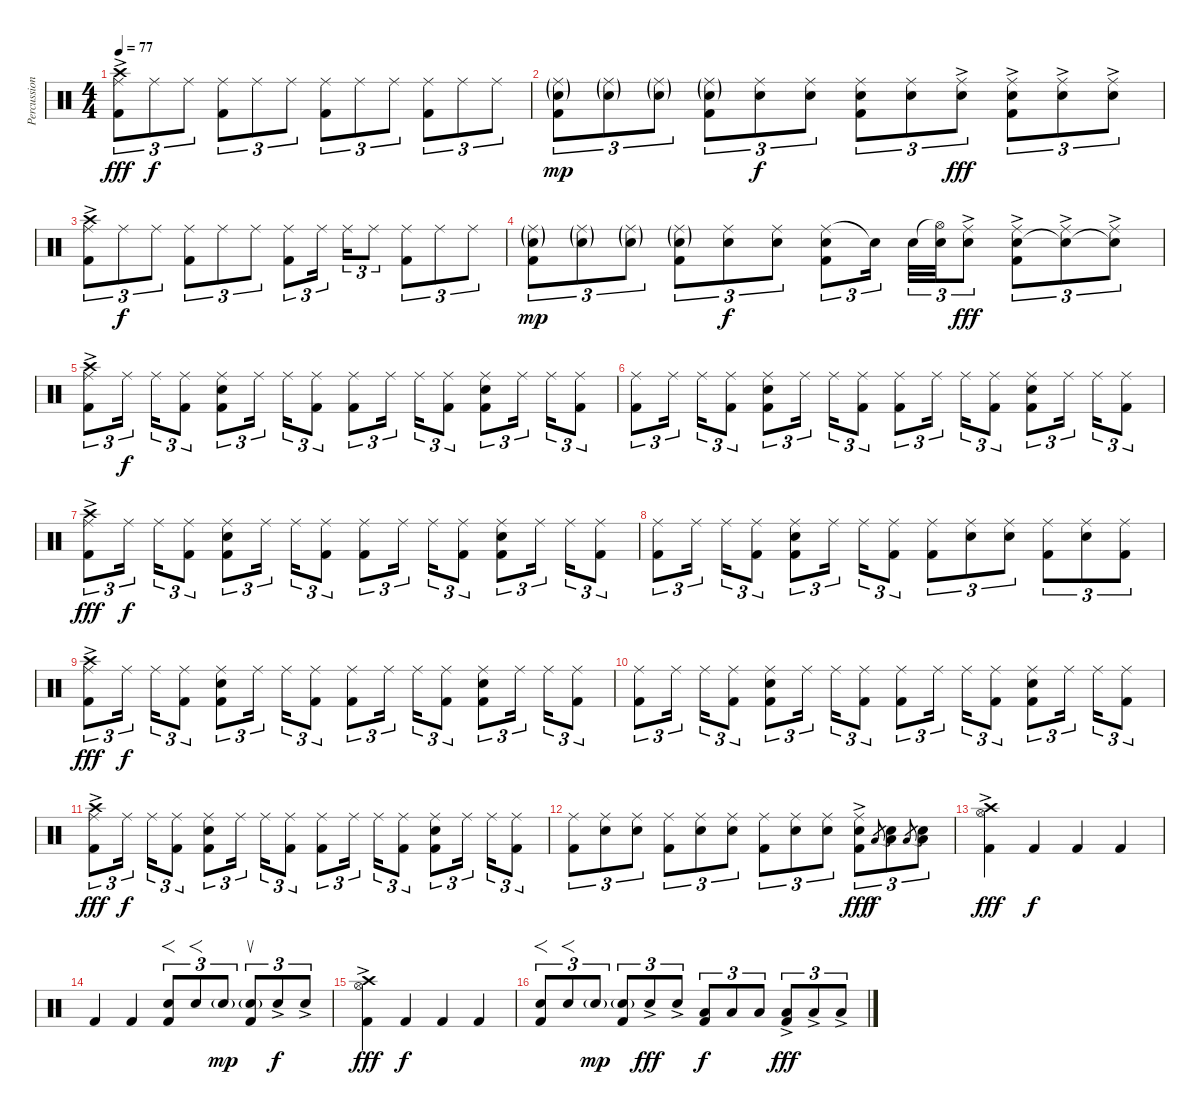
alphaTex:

\track ("Percussion" "Percussion") {instrument percussion}
\staff {score}
\articulation defaults
\ts (4 4)
\tempo 77
\clef neutral
\ks c
("Ride (middle)"{ac} "Crash high (hit)"{ac} "Kick (hit) 2").8{tu (3 2) dy fff} "Ride (middle)".8{tu (3 2) dy f} "Ride (middle)".8{tu (3 2)} ("Ride (middle)" "Kick (hit) 2").8{tu (3 2)} "Ride (middle)".8{tu (3 2)} "Ride (middle)".8{tu (3 2)} ("Ride (middle)" "Kick (hit) 2").8{tu (3 2)} "Ride (middle)".8{tu (3 2)} "Ride (middle)".8{tu (3 2)} ("Ride (middle)" "Kick (hit) 2").8{tu (3 2)} "Ride (middle)".8{tu (3 2)} "Ride (middle)".8{tu (3 2)} |
("Ride (middle)"{g} "Snare (hit) 2"{g} "Kick (hit) 2").8{tu (3 2) dy mp} ("Ride (middle)"{g} "Snare (hit) 2"{g}).8{tu (3 2)} ("Ride (middle)"{g} "Snare (hit) 2"{g}).8{tu (3 2)} ("Ride (middle)"{g} "Snare (hit) 2"{g} "Kick (hit) 2").8{tu (3 2)} ("Ride (middle)" "Snare (hit) 2").8{tu (3 2) dy f} ("Ride (middle)" "Snare (hit) 2").8{tu (3 2)} ("Ride (middle)" "Snare (hit) 2" "Kick (hit) 2").8{tu (3 2)} ("Ride (middle)" "Snare (hit) 2").8{tu (3 2)} ("Ride (middle)"{ac} "Snare (hit) 2"{ac}).8{tu (3 2) dy fff} ("Ride (middle)"{ac} "Snare (hit) 2"{ac} "Kick (hit) 2").8{tu (3 2)} ("Ride (middle)"{ac} "Snare (hit) 2"{ac}).8{tu (3 2)} ("Ride (middle)"{ac} "Snare (hit) 2"{ac}).8{tu (3 2)} |
("Ride (middle)"{ac} "Crash high (hit)"{ac} "Kick (hit) 2").8{tu (3 2)} "Ride (middle)".8{tu (3 2) dy f} "Ride (middle)".8{tu (3 2)} ("Ride (middle)" "Kick (hit) 2").8{tu (3 2)} "Ride (middle)".8{tu (3 2)} "Ride (middle)".8{tu (3 2)} ("Ride (middle)" "Kick (hit) 2").8{tu (3 2)} "Ride (middle)".16{tu (3 2)} "Ride (middle)".16{tu (3 2)} "Ride (middle)".8{tu (3 2)} ("Ride (middle)" "Kick (hit) 2").8{tu (3 2)} "Ride (middle)".8{tu (3 2)} "Ride (middle)".8{tu (3 2)} |
("Ride (middle)"{g} "Snare (hit) 2"{g} "Kick (hit) 2").8{tu (3 2) dy mp} ("Ride (middle)"{g} "Snare (hit) 2"{g}).8{tu (3 2)} ("Ride (middle)"{g} "Snare (hit) 2"{g}).8{tu (3 2)} ("Ride (middle)"{g} "Snare (hit) 2"{g} "Kick (hit) 2").8{tu (3 2)} ("Ride (middle)" "Snare (hit) 2").8{tu (3 2) dy f} ("Ride (middle)" "Snare (hit) 2").8{tu (3 2)} ("Ride (middle)" "Snare (hit) 2" "Kick (hit) 2").8{tu (3 2)} "Snare (hit) 2"{t}.16{tu (3 2)} "Snare (hit) 2".32{tu (3 2)} ("Hi-Hat (open)"{t} "Snare (hit) 2").32{tu (3 2)} ("Ride (middle)"{ac} "Snare (hit) 2"{ac}).8{tu (3 2) dy fff} ("Ride (middle)"{ac} "Snare (hit) 2"{ac} "Kick (hit) 2").8{tu (3 2)} ("Ride (middle)"{ac} "Snare (hit) 2"{t}).8{tu (3 2)} ("Ride (middle)"{ac} "Snare (hit) 2"{t}).8{tu (3 2)} |
("Ride (middle)"{ac} "Crash high (hit)"{ac} "Kick (hit) 2").8{tu (3 2)} "Ride (middle)".16{tu (3 2) dy f} "Ride (middle)".16{tu (3 2)} ("Ride (middle)" "Kick (hit) 2").8{tu (3 2)} ("Ride (middle)" "Snare (hit) 2" "Kick (hit) 2").8{tu (3 2)} "Ride (middle)".16{tu (3 2)} "Ride (middle)".16{tu (3 2)} ("Ride (middle)" "Kick (hit) 2").8{tu (3 2)} ("Ride (middle)" "Kick (hit) 2").8{tu (3 2)} "Ride (middle)".16{tu (3 2)} "Ride (middle)".16{tu (3 2)} ("Ride (middle)" "Kick (hit) 2").8{tu (3 2)} ("Ride (middle)" "Snare (hit) 2" "Kick (hit) 2").8{tu (3 2)} "Ride (middle)".16{tu (3 2)} "Ride (middle)".16{tu (3 2)} ("Ride (middle)" "Kick (hit) 2").8{tu (3 2)} |
("Ride (middle)" "Kick (hit) 2").8{tu (3 2)} "Ride (middle)".16{tu (3 2)} "Ride (middle)".16{tu (3 2)} ("Ride (middle)" "Kick (hit) 2").8{tu (3 2)} ("Ride (middle)" "Snare (hit) 2" "Kick (hit) 2").8{tu (3 2)} "Ride (middle)".16{tu (3 2)} "Ride (middle)".16{tu (3 2)} ("Ride (middle)" "Kick (hit) 2").8{tu (3 2)} ("Ride (middle)" "Kick (hit) 2").8{tu (3 2)} "Ride (middle)".16{tu (3 2)} "Ride (middle)".16{tu (3 2)} ("Ride (middle)" "Kick (hit) 2").8{tu (3 2)} ("Ride (middle)" "Snare (hit) 2" "Kick (hit) 2").8{tu (3 2)} "Ride (middle)".16{tu (3 2)} "Ride (middle)".16{tu (3 2)} ("Ride (middle)" "Kick (hit) 2").8{tu (3 2)} |
("Ride (middle)"{ac} "Crash high (hit)"{ac} "Kick (hit) 2").8{tu (3 2) dy fff} "Ride (middle)".16{tu (3 2) dy f} "Ride (middle)".16{tu (3 2)} ("Ride (middle)" "Kick (hit) 2").8{tu (3 2)} ("Ride (middle)" "Snare (hit) 2" "Kick (hit) 2").8{tu (3 2)} "Ride (middle)".16{tu (3 2)} "Ride (middle)".16{tu (3 2)} ("Ride (middle)" "Kick (hit) 2").8{tu (3 2)} ("Ride (middle)" "Kick (hit) 2").8{tu (3 2)} "Ride (middle)".16{tu (3 2)} "Ride (middle)".16{tu (3 2)} ("Ride (middle)" "Kick (hit) 2").8{tu (3 2)} ("Ride (middle)" "Snare (hit) 2" "Kick (hit) 2").8{tu (3 2)} "Ride (middle)".16{tu (3 2)} "Ride (middle)".16{tu (3 2)} ("Ride (middle)" "Kick (hit) 2").8{tu (3 2)} |
("Ride (middle)" "Kick (hit) 2").8{tu (3 2)} "Ride (middle)".16{tu (3 2)} "Ride (middle)".16{tu (3 2)} ("Ride (middle)" "Kick (hit) 2").8{tu (3 2)} ("Ride (middle)" "Snare (hit) 2" "Kick (hit) 2").8{tu (3 2)} "Ride (middle)".16{tu (3 2)} "Ride (middle)".16{tu (3 2)} ("Ride (middle)" "Kick (hit) 2").8{tu (3 2)} ("Ride (middle)" "Kick (hit) 2").8{tu (3 2)} ("Ride (middle)" "Snare (hit) 2").8{tu (3 2)} ("Ride (middle)" "Snare (hit) 2").8{tu (3 2)} ("Ride (middle)" "Kick (hit) 2").8{tu (3 2)} ("Ride (middle)" "Snare (hit) 2").8{tu (3 2)} ("Ride (middle)" "Kick (hit) 2").8{tu (3 2)} |
("Ride (middle)"{ac} "Crash high (hit)"{ac} "Kick (hit) 2").8{tu (3 2) dy fff} "Ride (middle)".16{tu (3 2) dy f} "Ride (middle)".16{tu (3 2)} ("Ride (middle)" "Kick (hit) 2").8{tu (3 2)} ("Ride (middle)" "Snare (hit) 2" "Kick (hit) 2").8{tu (3 2)} "Ride (middle)".16{tu (3 2)} "Ride (middle)".16{tu (3 2)} ("Ride (middle)" "Kick (hit) 2").8{tu (3 2)} ("Ride (middle)" "Kick (hit) 2").8{tu (3 2)} "Ride (middle)".16{tu (3 2)} "Ride (middle)".16{tu (3 2)} ("Ride (middle)" "Kick (hit) 2").8{tu (3 2)} ("Ride (middle)" "Snare (hit) 2" "Kick (hit) 2").8{tu (3 2)} "Ride (middle)".16{tu (3 2)} "Ride (middle)".16{tu (3 2)} ("Ride (middle)" "Kick (hit) 2").8{tu (3 2)} |
("Ride (middle)" "Kick (hit) 2").8{tu (3 2)} "Ride (middle)".16{tu (3 2)} "Ride (middle)".16{tu (3 2)} ("Ride (middle)" "Kick (hit) 2").8{tu (3 2)} ("Ride (middle)" "Snare (hit) 2" "Kick (hit) 2").8{tu (3 2)} "Ride (middle)".16{tu (3 2)} "Ride (middle)".16{tu (3 2)} ("Ride (middle)" "Kick (hit) 2").8{tu (3 2)} ("Ride (middle)" "Kick (hit) 2").8{tu (3 2)} "Ride (middle)".16{tu (3 2)} "Ride (middle)".16{tu (3 2)} ("Ride (middle)" "Kick (hit) 2").8{tu (3 2)} ("Ride (middle)" "Snare (hit) 2" "Kick (hit) 2").8{tu (3 2)} "Ride (middle)".16{tu (3 2)} "Ride (middle)".16{tu (3 2)} ("Ride (middle)" "Kick (hit) 2").8{tu (3 2)} |
("Ride (middle)"{ac} "Crash high (hit)"{ac} "Kick (hit) 2").8{tu (3 2) dy fff} "Ride (middle)".16{tu (3 2) dy f} "Ride (middle)".16{tu (3 2)} ("Ride (middle)" "Kick (hit) 2").8{tu (3 2)} ("Ride (middle)" "Snare (hit) 2" "Kick (hit) 2").8{tu (3 2)} "Ride (middle)".16{tu (3 2)} "Ride (middle)".16{tu (3 2)} ("Ride (middle)" "Kick (hit) 2").8{tu (3 2)} ("Ride (middle)" "Kick (hit) 2").8{tu (3 2)} "Ride (middle)".16{tu (3 2)} "Ride (middle)".16{tu (3 2)} ("Ride (middle)" "Kick (hit) 2").8{tu (3 2)} ("Ride (middle)" "Snare (hit) 2" "Kick (hit) 2").8{tu (3 2)} "Ride (middle)".16{tu (3 2)} "Ride (middle)".16{tu (3 2)} ("Ride (middle)" "Kick (hit) 2").8{tu (3 2)} |
("Ride (middle)" "Kick (hit) 2").8{tu (3 2)} ("Ride (middle)" "Snare (hit) 2").8{tu (3 2)} ("Ride (middle)" "Snare (hit) 2").8{tu (3 2)} ("Ride (middle)" "Kick (hit) 2").8{tu (3 2)} ("Ride (middle)" "Snare (hit) 2").8{tu (3 2)} ("Ride (middle)" "Snare (hit) 2").8{tu (3 2)} ("Ride (middle)" "Kick (hit) 2").8{tu (3 2)} ("Ride (middle)" "Snare (hit) 2").8{tu (3 2)} ("Ride (middle)" "Snare (hit) 2").8{tu (3 2)} ("Ride (middle)"{ac} "Snare (hit) 2"{ac} "Kick (hit) 2").8{tu (3 2) dy fff} "Low Tom (hit)".8{gr dy f} ("Snare (hit)"{t} "Low Tom (hit)").8{tu (3 2)} "Low Tom (hit)".8{gr} ("Snare (hit)"{t} "Low Tom (hit)").8{tu (3 2)} |
("Hi-Hat (open)"{ac} "Crash high (hit)"{ac} "Kick (hit) 2").4{dy fff} "Kick (hit) 2".4{dy f} "Kick (hit) 2".4 "Kick (hit) 2".4 |
"Kick (hit) 2".4 "Kick (hit) 2".4 ("Snare (hit) 2" "Kick (hit) 2").8{f tu (3 2)} "Snare (hit) 2".8{f tu (3 2)} "Snare (hit) 2"{g}.8{tu (3 2) dy mp} ("Snare (hit) 2"{g} "Kick (hit) 2").8{su tu (3 2)} "Snare (hit) 2"{ac}.8{tu (3 2) dy f} "Snare (hit) 2"{ac}.8{tu (3 2)} |
("Hi-Hat (open)"{ac} "Crash high (hit)"{ac} "Kick (hit) 2").4{dy fff} "Kick (hit) 2".4{dy f} "Kick (hit) 2".4 "Kick (hit) 2".4 |
("Snare (hit) 2" "Kick (hit) 2").8{f tu (3 2)} "Snare (hit) 2".8{f tu (3 2)} "Snare (hit) 2"{g}.8{tu (3 2) dy mp} ("Snare (hit) 2"{g} "Kick (hit) 2").8{tu (3 2)} "Snare (hit) 2"{ac}.8{tu (3 2) dy fff} "Snare (hit) 2"{ac}.8{tu (3 2)} ("Low Tom (hit)" "Kick (hit) 2").8{tu (3 2) dy f} "Low Tom (hit)".8{tu (3 2)} "Low Tom (hit)".8{tu (3 2)} ("Low Tom (hit)"{ac} "Kick (hit) 2").8{tu (3 2) dy fff} "Low Tom (hit)"{ac}.8{tu (3 2)} "Low Tom (hit)"{ac}.8{tu (3 2)}
